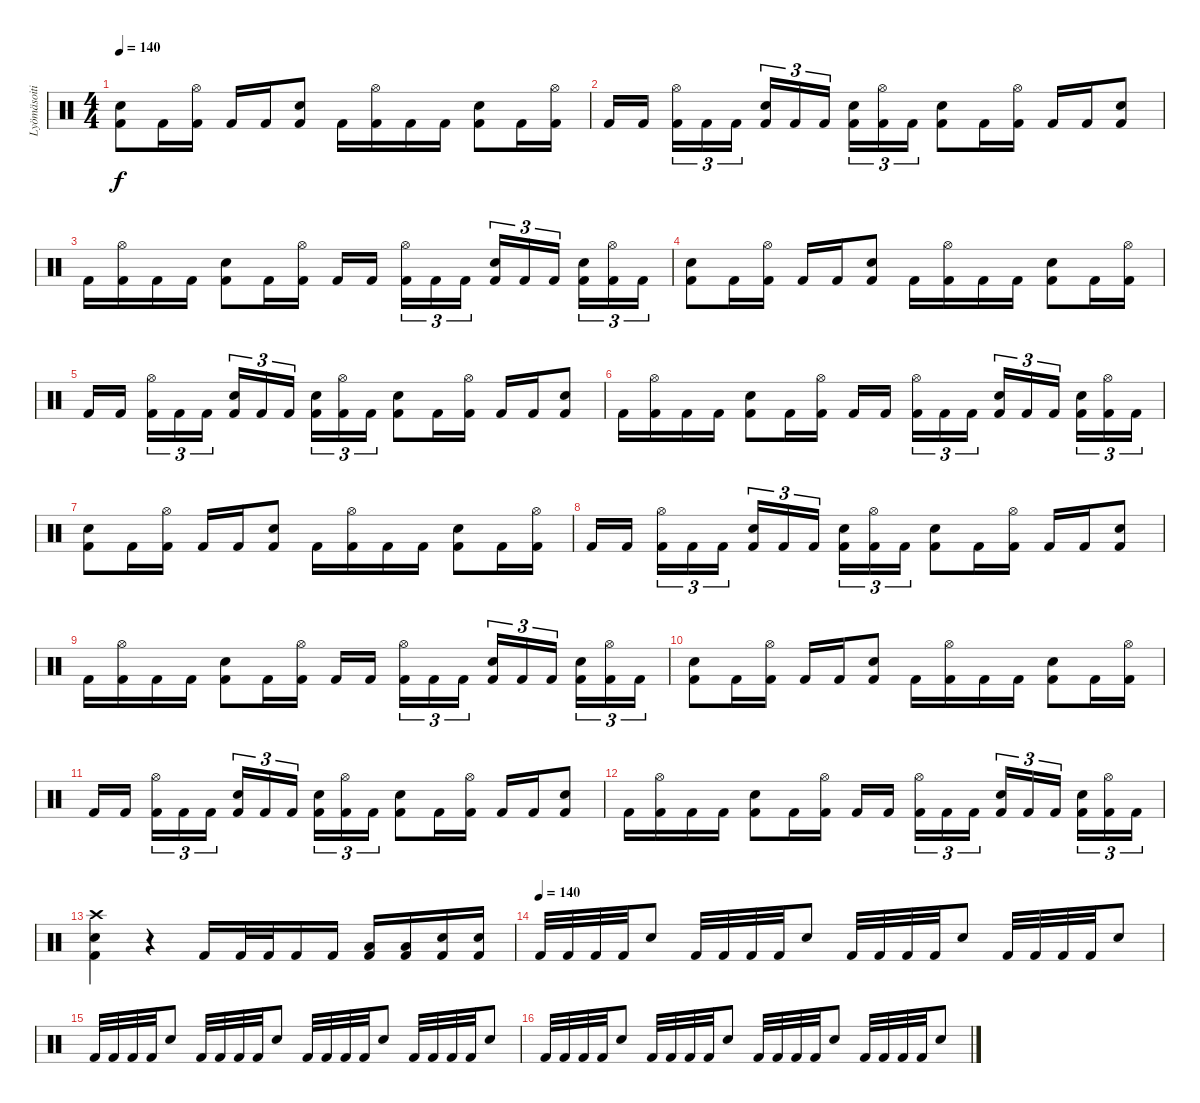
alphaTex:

\track ("Lyömäsoitin" "Lyömäsoiti") {instrument percussion}
\staff {score}
\articulation defaults
\ts (4 4)
\tempo 140
\clef neutral
\ks c
("Electric Snare (hit)" "Kick (hit) 2").8{dy f} "Kick (hit) 2".16 ("Hi-Hat (open)" "Kick (hit) 2").16 "Kick (hit) 2".16 "Kick (hit) 2".16 ("Electric Snare (hit)" "Kick (hit) 2").8 "Kick (hit) 2".16 ("Hi-Hat (open)" "Kick (hit) 2").16 "Kick (hit) 2".16 "Kick (hit) 2".16 ("Electric Snare (hit)" "Kick (hit) 2").8 "Kick (hit) 2".16 ("Hi-Hat (open)" "Kick (hit) 2").16 |
"Kick (hit) 2".16 "Kick (hit) 2".16{beam splitsecondary} ("Hi-Hat (open)" "Kick (hit) 2").16{tu (3 2)} "Kick (hit) 2".16{tu (3 2)} "Kick (hit) 2".16{tu (3 2)} ("Electric Snare (hit)" "Kick (hit) 2").16{tu (3 2)} "Kick (hit) 2".16{tu (3 2)} "Kick (hit) 2".16{tu (3 2) beam splitsecondary} ("Electric Snare (hit)" "Kick (hit) 2").16{tu (3 2)} ("Hi-Hat (open)" "Kick (hit) 2").16{tu (3 2)} "Kick (hit) 2".16{tu (3 2)} ("Electric Snare (hit)" "Kick (hit) 2").8 "Kick (hit) 2".16 ("Hi-Hat (open)" "Kick (hit) 2").16 "Kick (hit) 2".16 "Kick (hit) 2".16 ("Electric Snare (hit)" "Kick (hit) 2").8 |
"Kick (hit) 2".16 ("Hi-Hat (open)" "Kick (hit) 2").16 "Kick (hit) 2".16 "Kick (hit) 2".16 ("Electric Snare (hit)" "Kick (hit) 2").8 "Kick (hit) 2".16 ("Hi-Hat (open)" "Kick (hit) 2").16 "Kick (hit) 2".16 "Kick (hit) 2".16{beam splitsecondary} ("Hi-Hat (open)" "Kick (hit) 2").16{tu (3 2)} "Kick (hit) 2".16{tu (3 2)} "Kick (hit) 2".16{tu (3 2)} ("Electric Snare (hit)" "Kick (hit) 2").16{tu (3 2)} "Kick (hit) 2".16{tu (3 2)} "Kick (hit) 2".16{tu (3 2) beam splitsecondary} ("Electric Snare (hit)" "Kick (hit) 2").16{tu (3 2)} ("Hi-Hat (open)" "Kick (hit) 2").16{tu (3 2)} "Kick (hit) 2".16{tu (3 2)} |
("Electric Snare (hit)" "Kick (hit) 2").8 "Kick (hit) 2".16 ("Hi-Hat (open)" "Kick (hit) 2").16 "Kick (hit) 2".16 "Kick (hit) 2".16 ("Electric Snare (hit)" "Kick (hit) 2").8 "Kick (hit) 2".16 ("Hi-Hat (open)" "Kick (hit) 2").16 "Kick (hit) 2".16 "Kick (hit) 2".16 ("Electric Snare (hit)" "Kick (hit) 2").8 "Kick (hit) 2".16 ("Hi-Hat (open)" "Kick (hit) 2").16 |
"Kick (hit) 2".16 "Kick (hit) 2".16{beam splitsecondary} ("Hi-Hat (open)" "Kick (hit) 2").16{tu (3 2)} "Kick (hit) 2".16{tu (3 2)} "Kick (hit) 2".16{tu (3 2)} ("Electric Snare (hit)" "Kick (hit) 2").16{tu (3 2)} "Kick (hit) 2".16{tu (3 2)} "Kick (hit) 2".16{tu (3 2) beam splitsecondary} ("Electric Snare (hit)" "Kick (hit) 2").16{tu (3 2)} ("Hi-Hat (open)" "Kick (hit) 2").16{tu (3 2)} "Kick (hit) 2".16{tu (3 2)} ("Electric Snare (hit)" "Kick (hit) 2").8 "Kick (hit) 2".16 ("Hi-Hat (open)" "Kick (hit) 2").16 "Kick (hit) 2".16 "Kick (hit) 2".16 ("Electric Snare (hit)" "Kick (hit) 2").8 |
"Kick (hit) 2".16 ("Hi-Hat (open)" "Kick (hit) 2").16 "Kick (hit) 2".16 "Kick (hit) 2".16 ("Electric Snare (hit)" "Kick (hit) 2").8 "Kick (hit) 2".16 ("Hi-Hat (open)" "Kick (hit) 2").16 "Kick (hit) 2".16 "Kick (hit) 2".16{beam splitsecondary} ("Hi-Hat (open)" "Kick (hit) 2").16{tu (3 2)} "Kick (hit) 2".16{tu (3 2)} "Kick (hit) 2".16{tu (3 2)} ("Electric Snare (hit)" "Kick (hit) 2").16{tu (3 2)} "Kick (hit) 2".16{tu (3 2)} "Kick (hit) 2".16{tu (3 2) beam splitsecondary} ("Electric Snare (hit)" "Kick (hit) 2").16{tu (3 2)} ("Hi-Hat (open)" "Kick (hit) 2").16{tu (3 2)} "Kick (hit) 2".16{tu (3 2)} |
("Electric Snare (hit)" "Kick (hit) 2").8 "Kick (hit) 2".16 ("Hi-Hat (open)" "Kick (hit) 2").16 "Kick (hit) 2".16 "Kick (hit) 2".16 ("Electric Snare (hit)" "Kick (hit) 2").8 "Kick (hit) 2".16 ("Hi-Hat (open)" "Kick (hit) 2").16 "Kick (hit) 2".16 "Kick (hit) 2".16 ("Electric Snare (hit)" "Kick (hit) 2").8 "Kick (hit) 2".16 ("Hi-Hat (open)" "Kick (hit) 2").16 |
"Kick (hit) 2".16 "Kick (hit) 2".16{beam splitsecondary} ("Hi-Hat (open)" "Kick (hit) 2").16{tu (3 2)} "Kick (hit) 2".16{tu (3 2)} "Kick (hit) 2".16{tu (3 2)} ("Electric Snare (hit)" "Kick (hit) 2").16{tu (3 2)} "Kick (hit) 2".16{tu (3 2)} "Kick (hit) 2".16{tu (3 2) beam splitsecondary} ("Electric Snare (hit)" "Kick (hit) 2").16{tu (3 2)} ("Hi-Hat (open)" "Kick (hit) 2").16{tu (3 2)} "Kick (hit) 2".16{tu (3 2)} ("Electric Snare (hit)" "Kick (hit) 2").8 "Kick (hit) 2".16 ("Hi-Hat (open)" "Kick (hit) 2").16 "Kick (hit) 2".16 "Kick (hit) 2".16 ("Electric Snare (hit)" "Kick (hit) 2").8 |
"Kick (hit) 2".16 ("Hi-Hat (open)" "Kick (hit) 2").16 "Kick (hit) 2".16 "Kick (hit) 2".16 ("Electric Snare (hit)" "Kick (hit) 2").8 "Kick (hit) 2".16 ("Hi-Hat (open)" "Kick (hit) 2").16 "Kick (hit) 2".16 "Kick (hit) 2".16{beam splitsecondary} ("Hi-Hat (open)" "Kick (hit) 2").16{tu (3 2)} "Kick (hit) 2".16{tu (3 2)} "Kick (hit) 2".16{tu (3 2)} ("Electric Snare (hit)" "Kick (hit) 2").16{tu (3 2)} "Kick (hit) 2".16{tu (3 2)} "Kick (hit) 2".16{tu (3 2) beam splitsecondary} ("Electric Snare (hit)" "Kick (hit) 2").16{tu (3 2)} ("Hi-Hat (open)" "Kick (hit) 2").16{tu (3 2)} "Kick (hit) 2".16{tu (3 2)} |
("Electric Snare (hit)" "Kick (hit) 2").8 "Kick (hit) 2".16 ("Hi-Hat (open)" "Kick (hit) 2").16 "Kick (hit) 2".16 "Kick (hit) 2".16 ("Electric Snare (hit)" "Kick (hit) 2").8 "Kick (hit) 2".16 ("Hi-Hat (open)" "Kick (hit) 2").16 "Kick (hit) 2".16 "Kick (hit) 2".16 ("Electric Snare (hit)" "Kick (hit) 2").8 "Kick (hit) 2".16 ("Hi-Hat (open)" "Kick (hit) 2").16 |
"Kick (hit) 2".16 "Kick (hit) 2".16{beam splitsecondary} ("Hi-Hat (open)" "Kick (hit) 2").16{tu (3 2)} "Kick (hit) 2".16{tu (3 2)} "Kick (hit) 2".16{tu (3 2)} ("Electric Snare (hit)" "Kick (hit) 2").16{tu (3 2)} "Kick (hit) 2".16{tu (3 2)} "Kick (hit) 2".16{tu (3 2) beam splitsecondary} ("Electric Snare (hit)" "Kick (hit) 2").16{tu (3 2)} ("Hi-Hat (open)" "Kick (hit) 2").16{tu (3 2)} "Kick (hit) 2".16{tu (3 2)} ("Electric Snare (hit)" "Kick (hit) 2").8 "Kick (hit) 2".16 ("Hi-Hat (open)" "Kick (hit) 2").16 "Kick (hit) 2".16 "Kick (hit) 2".16 ("Electric Snare (hit)" "Kick (hit) 2").8 |
"Kick (hit) 2".16 ("Hi-Hat (open)" "Kick (hit) 2").16 "Kick (hit) 2".16 "Kick (hit) 2".16 ("Electric Snare (hit)" "Kick (hit) 2").8 "Kick (hit) 2".16 ("Hi-Hat (open)" "Kick (hit) 2").16 "Kick (hit) 2".16 "Kick (hit) 2".16{beam splitsecondary} ("Hi-Hat (open)" "Kick (hit) 2").16{tu (3 2)} "Kick (hit) 2".16{tu (3 2)} "Kick (hit) 2".16{tu (3 2)} ("Electric Snare (hit)" "Kick (hit) 2").16{tu (3 2)} "Kick (hit) 2".16{tu (3 2)} "Kick (hit) 2".16{tu (3 2) beam splitsecondary} ("Electric Snare (hit)" "Kick (hit) 2").16{tu (3 2)} ("Hi-Hat (open)" "Kick (hit) 2").16{tu (3 2)} "Kick (hit) 2".16{tu (3 2)} |
("Crash high (hit)" "Electric Snare (hit)" "Kick (hit) 2").4 r.4 "Kick (hit) 2".16 "Kick (hit) 2".32 "Kick (hit) 2".32 "Kick (hit) 2".16 "Kick (hit) 2".16 ("Low Floor Tom (hit)" "Kick (hit) 2").16 ("Low Floor Tom (hit)" "Kick (hit) 2").16 ("Electric Snare (hit)" "Kick (hit) 2").16 ("Electric Snare (hit)" "Kick (hit) 2").16 |
\tempo (140)
"Kick (hit) 2".32 "Kick (hit) 2".32 "Kick (hit) 2".32 "Kick (hit) 2".32 "Electric Snare (hit)".8 "Kick (hit) 2".32 "Kick (hit) 2".32 "Kick (hit) 2".32 "Kick (hit) 2".32 "Electric Snare (hit)".8 "Kick (hit) 2".32 "Kick (hit) 2".32 "Kick (hit) 2".32 "Kick (hit) 2".32 "Electric Snare (hit)".8 "Kick (hit) 2".32 "Kick (hit) 2".32 "Kick (hit) 2".32 "Kick (hit) 2".32 "Electric Snare (hit)".8 |
"Kick (hit) 2".32 "Kick (hit) 2".32 "Kick (hit) 2".32 "Kick (hit) 2".32 "Electric Snare (hit)".8 "Kick (hit) 2".32 "Kick (hit) 2".32 "Kick (hit) 2".32 "Kick (hit) 2".32 "Electric Snare (hit)".8 "Kick (hit) 2".32 "Kick (hit) 2".32 "Kick (hit) 2".32 "Kick (hit) 2".32 "Electric Snare (hit)".8 "Kick (hit) 2".32 "Kick (hit) 2".32 "Kick (hit) 2".32 "Kick (hit) 2".32 "Electric Snare (hit)".8 |
"Kick (hit) 2".32 "Kick (hit) 2".32 "Kick (hit) 2".32 "Kick (hit) 2".32 "Electric Snare (hit)".8 "Kick (hit) 2".32 "Kick (hit) 2".32 "Kick (hit) 2".32 "Kick (hit) 2".32 "Electric Snare (hit)".8 "Kick (hit) 2".32 "Kick (hit) 2".32 "Kick (hit) 2".32 "Kick (hit) 2".32 "Electric Snare (hit)".8 "Kick (hit) 2".32 "Kick (hit) 2".32 "Kick (hit) 2".32 "Kick (hit) 2".32 "Electric Snare (hit)".8
